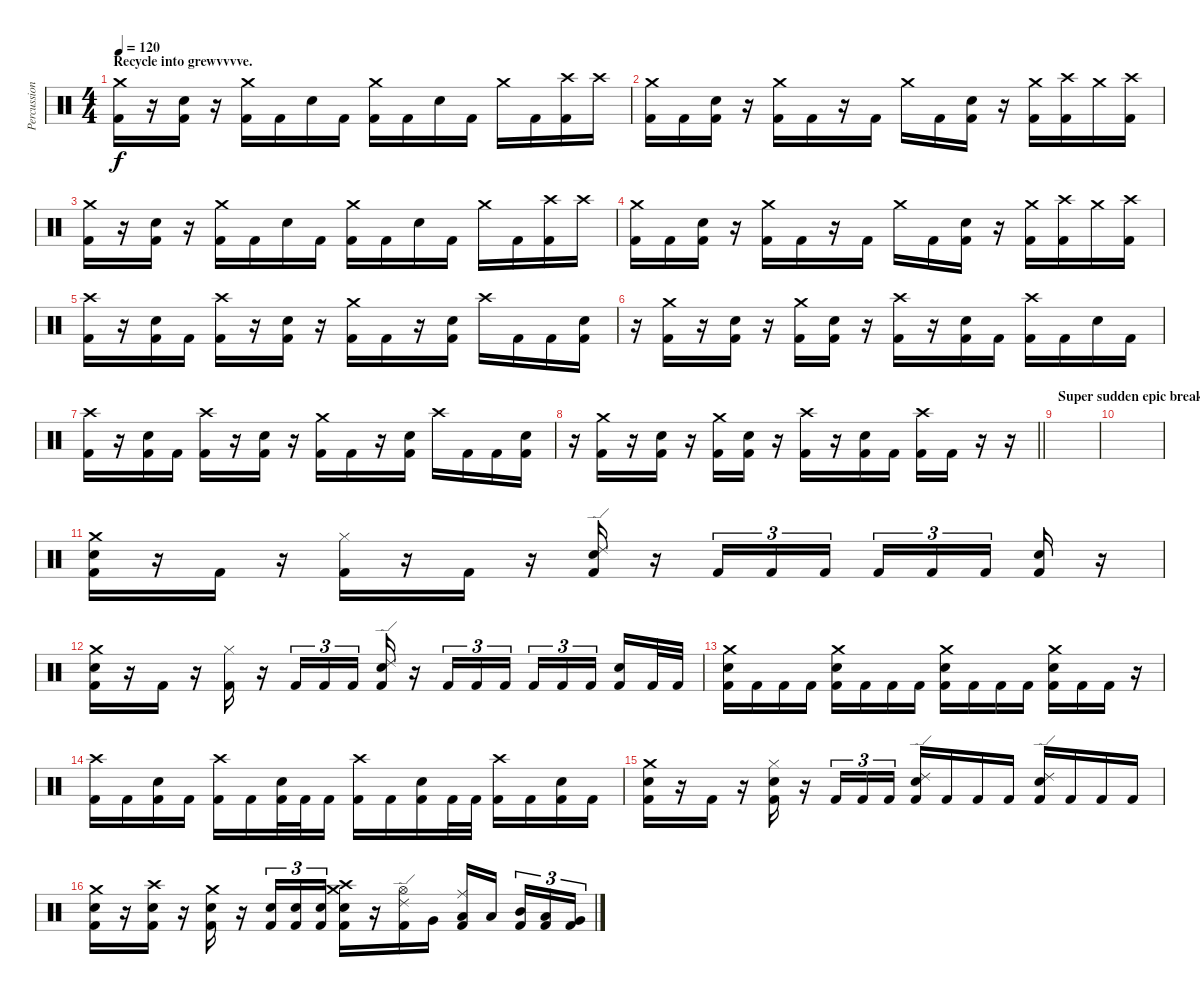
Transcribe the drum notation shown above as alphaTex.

\track ("Percussion" "Percussion") {instrument percussion}
\staff {score}
\articulation defaults
\ts (4 4)
\section ("" "Recycle into grewvvvve.")
\tempo 120
\clef neutral
\ks c
("Crash medium (hit)" "Kick (hit) 2").16{dy f} r.16 ("Electric Snare (hit)" "Kick (hit) 2").16 r.16 ("Crash medium (hit)" "Kick (hit) 2").16 "Kick (hit) 2".16 "Electric Snare (hit)".16 "Kick (hit) 2".16 ("Crash medium (hit)" "Kick (hit) 2").16 "Kick (hit) 2".16 "Electric Snare (hit)".16 "Kick (hit) 2".16 "Crash medium (hit)".16 "Kick (hit) 2".16 ("Crash high (hit)" "Kick (hit) 2").16 "Crash high (hit)".16 |
("Crash medium (hit)" "Kick (hit) 2").16 "Kick (hit) 2".16 ("Electric Snare (hit)" "Kick (hit) 2").16 r.16 ("Crash medium (hit)" "Kick (hit) 2").16 "Kick (hit) 2".16 r.16 "Kick (hit) 2".16 "Crash medium (hit)".16 "Kick (hit) 2".16 ("Electric Snare (hit)" "Kick (hit) 2").16 r.16 ("Crash medium (hit)" "Kick (hit) 2").16 ("Crash high (hit)" "Kick (hit) 2").16 "Crash medium (hit)".16 ("Crash high (hit)" "Kick (hit) 2").16 |
("Crash medium (hit)" "Kick (hit) 2").16 r.16 ("Electric Snare (hit)" "Kick (hit) 2").16 r.16 ("Crash medium (hit)" "Kick (hit) 2").16 "Kick (hit) 2".16 "Electric Snare (hit)".16 "Kick (hit) 2".16 ("Crash medium (hit)" "Kick (hit) 2").16 "Kick (hit) 2".16 "Electric Snare (hit)".16 "Kick (hit) 2".16 "Crash medium (hit)".16 "Kick (hit) 2".16 ("Crash high (hit)" "Kick (hit) 2").16 "Crash high (hit)".16 |
("Crash medium (hit)" "Kick (hit) 2").16 "Kick (hit) 2".16 ("Electric Snare (hit)" "Kick (hit) 2").16 r.16 ("Crash medium (hit)" "Kick (hit) 2").16 "Kick (hit) 2".16 r.16 "Kick (hit) 2".16 "Crash medium (hit)".16 "Kick (hit) 2".16 ("Electric Snare (hit)" "Kick (hit) 2").16 r.16 ("Crash medium (hit)" "Kick (hit) 2").16 ("Crash high (hit)" "Kick (hit) 2").16 "Crash medium (hit)".16 ("Crash high (hit)" "Kick (hit) 2").16 |
("Crash high (hit)" "Kick (hit) 2").16 r.16 ("Electric Snare (hit)" "Kick (hit) 2").16 "Kick (hit) 2".16 ("Crash high (hit)" "Kick (hit) 2").16 r.16 ("Electric Snare (hit)" "Kick (hit) 2").16 r.16 ("Crash medium (hit)" "Kick (hit) 2").16 "Kick (hit) 2".16 r.16 ("Electric Snare (hit)" "Kick (hit) 2").16 "Crash high (hit)".16 "Kick (hit) 2".16 "Kick (hit) 2".16 ("Electric Snare (hit)" "Kick (hit) 2").16 |
r.16 ("Crash medium (hit)" "Kick (hit) 2").16 r.16 ("Electric Snare (hit)" "Kick (hit) 2").16 r.16 ("Crash medium (hit)" "Kick (hit) 2").16 ("Electric Snare (hit)" "Kick (hit) 2").16 r.16 ("Crash high (hit)" "Kick (hit) 2").16 r.16 ("Electric Snare (hit)" "Kick (hit) 2").16 "Kick (hit) 2".16 ("Crash high (hit)" "Kick (hit) 2").16 "Kick (hit) 2".16 "Electric Snare (hit)".16 "Kick (hit) 2".16 |
("Crash high (hit)" "Kick (hit) 2").16 r.16 ("Electric Snare (hit)" "Kick (hit) 2").16 "Kick (hit) 2".16 ("Crash high (hit)" "Kick (hit) 2").16 r.16 ("Electric Snare (hit)" "Kick (hit) 2").16 r.16 ("Crash medium (hit)" "Kick (hit) 2").16 "Kick (hit) 2".16 r.16 ("Electric Snare (hit)" "Kick (hit) 2").16 "Crash high (hit)".16 "Kick (hit) 2".16 "Kick (hit) 2".16 ("Electric Snare (hit)" "Kick (hit) 2").16 |
\barLineRight lightlight
r.16 ("Crash medium (hit)" "Kick (hit) 2").16 r.16 ("Electric Snare (hit)" "Kick (hit) 2").16 r.16 ("Crash medium (hit)" "Kick (hit) 2").16 ("Electric Snare (hit)" "Kick (hit) 2").16 r.16 ("Crash high (hit)" "Kick (hit) 2").16 r.16 ("Electric Snare (hit)" "Kick (hit) 2").16 "Kick (hit) 2".16 ("Crash high (hit)" "Kick (hit) 2").16 "Kick (hit) 2".16 r.16 r.16 |
\section ("" "Super sudden epic break.")
|
|
("Crash medium (hit)" "Electric Snare (hit)" "Kick (hit) 2").16 r.16 "Kick (hit) 2".16 r.16 ("Hi-Hat (closed)" "Kick (hit) 2").16 r.16 "Kick (hit) 2".16 r.16 ("Ride (edge) 2" "Electric Snare (hit)" "Kick (hit) 2").16 r.16 "Kick (hit) 2".16{tu (3 2)} "Kick (hit) 2".16{tu (3 2)} "Kick (hit) 2".16{tu (3 2)} "Kick (hit) 2".16{tu (3 2)} "Kick (hit) 2".16{tu (3 2)} "Kick (hit) 2".16{tu (3 2) beam splitsecondary} ("Electric Snare (hit)" "Kick (hit) 2").16 r.16 |
("Crash medium (hit)" "Electric Snare (hit)" "Kick (hit) 2").16 r.16 "Kick (hit) 2".16 r.16 ("Hi-Hat (closed)" "Kick (hit) 2").16 r.16 "Kick (hit) 2".16{tu (3 2)} "Kick (hit) 2".16{tu (3 2)} "Kick (hit) 2".16{tu (3 2)} ("Ride (edge) 2" "Electric Snare (hit)" "Kick (hit) 2").16 r.16 "Kick (hit) 2".16{tu (3 2)} "Kick (hit) 2".16{tu (3 2)} "Kick (hit) 2".16{tu (3 2)} "Kick (hit) 2".16{tu (3 2)} "Kick (hit) 2".16{tu (3 2)} "Kick (hit) 2".16{tu (3 2) beam splitsecondary} ("Electric Snare (hit)" "Kick (hit) 2").16 "Kick (hit) 2".32 "Kick (hit) 2".32 |
("Crash medium (hit)" "Electric Snare (hit)" "Kick (hit) 2").16 "Kick (hit) 2".16 "Kick (hit) 2".16 "Kick (hit) 2".16 ("Crash medium (hit)" "Electric Snare (hit)" "Kick (hit) 2").16 "Kick (hit) 2".16 "Kick (hit) 2".16 "Kick (hit) 2".16 ("Crash medium (hit)" "Electric Snare (hit)" "Kick (hit) 2").16 "Kick (hit) 2".16 "Kick (hit) 2".16 "Kick (hit) 2".16 ("Crash medium (hit)" "Electric Snare (hit)" "Kick (hit) 2").16 "Kick (hit) 2".16 "Kick (hit) 2".16 r.16 |
("Crash high (hit)" "Kick (hit) 2").16 "Kick (hit) 2".16 ("Electric Snare (hit)" "Kick (hit) 2").16 "Kick (hit) 2".16 ("Crash high (hit)" "Kick (hit) 2").16 "Kick (hit) 2".16 ("Electric Snare (hit)" "Kick (hit) 2").32 "Kick (hit) 2".32 "Kick (hit) 2".16 ("Crash high (hit)" "Kick (hit) 2").16 "Kick (hit) 2".16 ("Electric Snare (hit)" "Kick (hit) 2").16 "Kick (hit) 2".32 "Kick (hit) 2".32 ("Crash high (hit)" "Kick (hit) 2").16 "Kick (hit) 2".16 ("Electric Snare (hit)" "Kick (hit) 2").16 "Kick (hit) 2".16 |
("Crash medium (hit)" "Electric Snare (hit)" "Kick (hit) 2").16 r.16 "Kick (hit) 2".16 r.16 ("Hi-Hat (closed)" "Electric Snare (hit)" "Kick (hit) 2").16 r.16 "Kick (hit) 2".16{tu (3 2)} "Kick (hit) 2".16{tu (3 2)} "Kick (hit) 2".16{tu (3 2)} ("Ride (edge) 2" "Electric Snare (hit)" "Kick (hit) 2").16 "Kick (hit) 2".16 "Kick (hit) 2".16 "Kick (hit) 2".16 ("Ride (edge) 2" "Electric Snare (hit)" "Kick (hit) 2").16 "Kick (hit) 2".16 "Kick (hit) 2".16 "Kick (hit) 2".16 |
("Crash medium (hit)" "Electric Snare (hit)" "Kick (hit) 2").16 r.16 ("Crash high (hit)" "Electric Snare (hit)" "Kick (hit) 2").16 r.16 ("Crash medium (hit)" "Electric Snare (hit)" "Kick (hit) 2").16 r.16 ("Electric Snare (hit)" "Kick (hit) 2").16{tu (3 2)} ("Electric Snare (hit)" "Kick (hit) 2").16{tu (3 2)} ("Electric Snare (hit)" "Kick (hit) 2").16{tu (3 2)} ("Crash medium (hit)" "Crash high (hit)" "Electric Snare (hit)" "Kick (hit) 2").16 r.16 ("Ride (edge) 2" "Hi-Hat (open)" "Kick (hit) 2").16 "Very Low Tom (hit)".16 ("Ride (middle)" "Low Floor Tom (hit)" "Kick (hit) 2").16 "Low Tom (hit)".16{beam splitsecondary} ("Mid Tom (hit)" "Kick (hit) 2").16{tu (3 2)} ("Low Tom (hit)" "Kick (hit) 2").16{tu (3 2)} ("Very Low Tom (hit)" "Kick (hit) 2").16{tu (3 2)}
